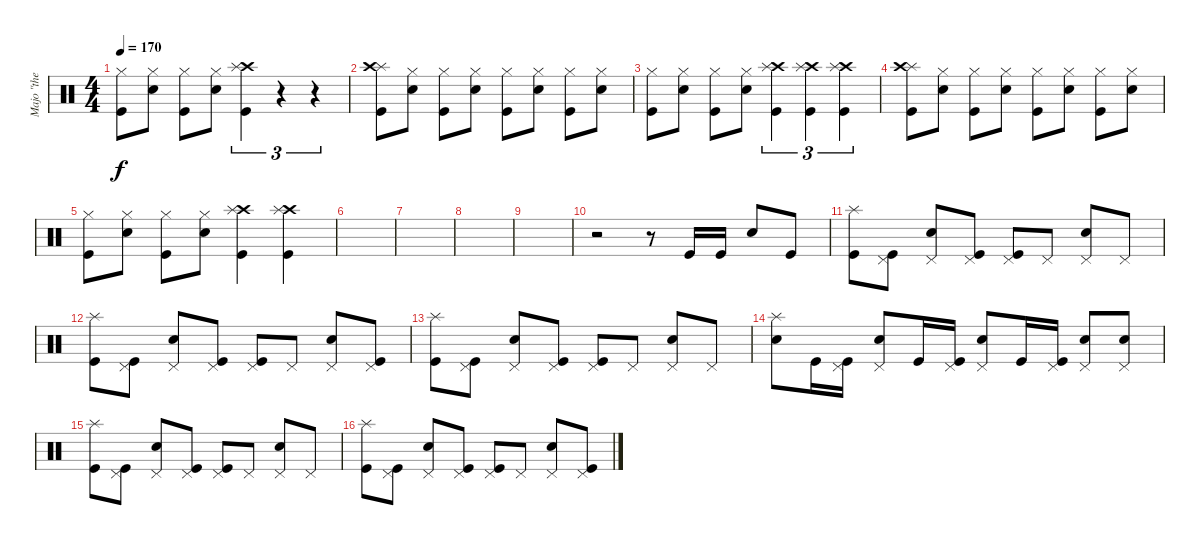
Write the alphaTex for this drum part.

\track ("Majo \"the Dremmel\" Hirt" "Majo \"the ") {instrument percussion}
\staff {score}
\articulation defaults
\ts (4 4)
\tempo 170
\clef neutral
\ks c
("Hi-Hat (closed)" "Kick (hit)").8{dy f} ("Hi-Hat (closed)" "Electric Snare (hit)").8 ("Hi-Hat (closed)" "Kick (hit)").8 ("Hi-Hat (closed)" "Electric Snare (hit)").8 ("Crash high (hit)" "Splash (hit)" "Kick (hit)").4{tu (3 2)} r.4{tu (3 2)} r.4{tu (3 2)} |
("Splash (hit)" "Crash high (hit)" "Kick (hit)").8 ("Hi-Hat (closed)" "Electric Snare (hit)").8 ("Hi-Hat (closed)" "Kick (hit)").8 ("Hi-Hat (closed)" "Electric Snare (hit)").8 ("Hi-Hat (closed)" "Kick (hit)").8 ("Hi-Hat (closed)" "Electric Snare (hit)").8 ("Hi-Hat (closed)" "Kick (hit)").8 ("Hi-Hat (closed)" "Electric Snare (hit)").8 |
("Hi-Hat (closed)" "Kick (hit)").8 ("Hi-Hat (closed)" "Electric Snare (hit)").8 ("Hi-Hat (closed)" "Kick (hit)").8 ("Hi-Hat (closed)" "Electric Snare (hit)").8 ("Crash high (hit)" "Splash (hit)" "Kick (hit)").4{tu (3 2)} ("Crash high (hit)" "Splash (hit)" "Kick (hit)").4{tu (3 2)} ("Crash high (hit)" "Splash (hit)" "Kick (hit)").4{tu (3 2)} |
("Splash (hit)" "Crash high (hit)" "Kick (hit)").8 ("Hi-Hat (closed)" "Electric Snare (hit)").8 ("Hi-Hat (closed)" "Kick (hit)").8 ("Hi-Hat (closed)" "Electric Snare (hit)").8 ("Hi-Hat (closed)" "Kick (hit)").8 ("Hi-Hat (closed)" "Electric Snare (hit)").8 ("Hi-Hat (closed)" "Kick (hit)").8 ("Hi-Hat (closed)" "Electric Snare (hit)").8 |
("Hi-Hat (closed)" "Kick (hit)").8 ("Hi-Hat (closed)" "Electric Snare (hit)").8 ("Hi-Hat (closed)" "Kick (hit)").8 ("Hi-Hat (closed)" "Electric Snare (hit)").8 ("Crash high (hit)" "Splash (hit)" "Kick (hit)").4 ("Crash high (hit)" "Splash (hit)" "Kick (hit)").4 |
|
|
|
|
r.2 r.8 "Kick (hit)".16 "Kick (hit)".16 "Electric Snare (hit)".8 "Kick (hit)".8 |
("Splash (hit)" "Kick (hit)").8 ("Pedal Hi-Hat (hit)" "Kick (hit)").8 ("Pedal Hi-Hat (hit)" "Electric Snare (hit)").8 ("Pedal Hi-Hat (hit)" "Kick (hit)").8 ("Pedal Hi-Hat (hit)" "Kick (hit)").8 "Pedal Hi-Hat (hit)".8 ("Pedal Hi-Hat (hit)" "Electric Snare (hit)").8 "Pedal Hi-Hat (hit)".8 |
("Splash (hit)" "Kick (hit)").8 ("Pedal Hi-Hat (hit)" "Kick (hit)").8 ("Pedal Hi-Hat (hit)" "Electric Snare (hit)").8 ("Pedal Hi-Hat (hit)" "Kick (hit)").8 ("Pedal Hi-Hat (hit)" "Kick (hit)").8 "Pedal Hi-Hat (hit)".8 ("Pedal Hi-Hat (hit)" "Electric Snare (hit)").8 ("Pedal Hi-Hat (hit)" "Kick (hit)").8 |
("Splash (hit)" "Kick (hit)").8 ("Pedal Hi-Hat (hit)" "Kick (hit)").8 ("Pedal Hi-Hat (hit)" "Electric Snare (hit)").8 ("Pedal Hi-Hat (hit)" "Kick (hit)").8 ("Pedal Hi-Hat (hit)" "Kick (hit)").8 "Pedal Hi-Hat (hit)".8 ("Pedal Hi-Hat (hit)" "Electric Snare (hit)").8 "Pedal Hi-Hat (hit)".8 |
("Splash (hit)" "Electric Snare (hit)").8 "Kick (hit)".16 ("Pedal Hi-Hat (hit)" "Kick (hit)").16 ("Pedal Hi-Hat (hit)" "Electric Snare (hit)").8 "Kick (hit)".16 ("Pedal Hi-Hat (hit)" "Kick (hit)").16 ("Pedal Hi-Hat (hit)" "Electric Snare (hit)").8 "Kick (hit)".16 ("Pedal Hi-Hat (hit)" "Kick (hit)").16 ("Pedal Hi-Hat (hit)" "Electric Snare (hit)").8 ("Pedal Hi-Hat (hit)" "Electric Snare (hit)").8 |
("Splash (hit)" "Kick (hit)").8 ("Pedal Hi-Hat (hit)" "Kick (hit)").8 ("Pedal Hi-Hat (hit)" "Electric Snare (hit)").8 ("Pedal Hi-Hat (hit)" "Kick (hit)").8 ("Pedal Hi-Hat (hit)" "Kick (hit)").8 "Pedal Hi-Hat (hit)".8 ("Pedal Hi-Hat (hit)" "Electric Snare (hit)").8 "Pedal Hi-Hat (hit)".8 |
("Splash (hit)" "Kick (hit)").8 ("Pedal Hi-Hat (hit)" "Kick (hit)").8 ("Pedal Hi-Hat (hit)" "Electric Snare (hit)").8 ("Pedal Hi-Hat (hit)" "Kick (hit)").8 ("Pedal Hi-Hat (hit)" "Kick (hit)").8 "Pedal Hi-Hat (hit)".8 ("Pedal Hi-Hat (hit)" "Electric Snare (hit)").8 ("Pedal Hi-Hat (hit)" "Kick (hit)").8
